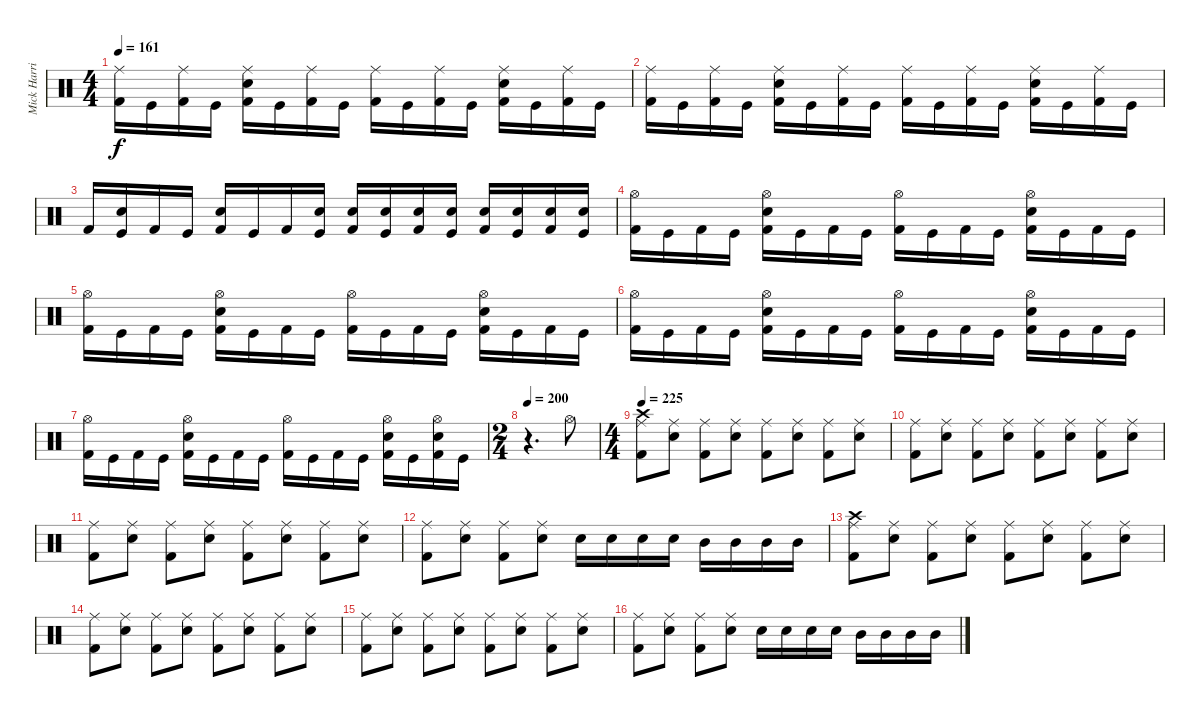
\track ("Mick Harris (Drums)" "Mick Harri") {instrument percussion}
\staff {score}
\articulation defaults
\ts (4 4)
\tempo 161
\clef neutral
\ks c
("Kick (hit) 2" "Ride (middle)").16{dy f} "Kick (hit)".16 ("Kick (hit) 2" "Ride (middle)").16 "Kick (hit)".16 ("Kick (hit) 2" "Ride (middle)" "Electric Snare (hit)").16 "Kick (hit)".16 ("Kick (hit) 2" "Ride (middle)").16 "Kick (hit)".16 ("Kick (hit) 2" "Ride (middle)").16 "Kick (hit)".16 ("Kick (hit) 2" "Ride (middle)").16 "Kick (hit)".16 ("Kick (hit) 2" "Ride (middle)" "Electric Snare (hit)").16 "Kick (hit)".16 ("Kick (hit) 2" "Ride (middle)").16 "Kick (hit)".16 |
("Kick (hit) 2" "Ride (middle)").16 "Kick (hit)".16 ("Kick (hit) 2" "Ride (middle)").16 "Kick (hit)".16 ("Kick (hit) 2" "Ride (middle)" "Electric Snare (hit)").16 "Kick (hit)".16 ("Kick (hit) 2" "Ride (middle)").16 "Kick (hit)".16 ("Kick (hit) 2" "Ride (middle)").16 "Kick (hit)".16 ("Kick (hit) 2" "Ride (middle)").16 "Kick (hit)".16 ("Kick (hit) 2" "Ride (middle)" "Electric Snare (hit)").16 "Kick (hit)".16 ("Kick (hit) 2" "Ride (middle)").16 "Kick (hit)".16 |
"Kick (hit) 2".16 ("Kick (hit)" "Electric Snare (hit)").16 "Kick (hit) 2".16 "Kick (hit)".16 ("Kick (hit) 2" "Electric Snare (hit)").16 "Kick (hit)".16 "Kick (hit) 2".16 ("Kick (hit)" "Electric Snare (hit)").16 ("Kick (hit) 2" "Electric Snare (hit)").16 ("Kick (hit)" "Electric Snare (hit)").16 ("Kick (hit) 2" "Electric Snare (hit)").16 ("Kick (hit)" "Electric Snare (hit)").16 ("Kick (hit) 2" "Electric Snare (hit)").16 ("Kick (hit)" "Electric Snare (hit)").16 ("Kick (hit) 2" "Electric Snare (hit)").16 ("Kick (hit)" "Electric Snare (hit)").16 |
("Kick (hit) 2" "Hi-Hat (open)").16 "Kick (hit)".16 "Kick (hit) 2".16 "Kick (hit)".16 ("Kick (hit) 2" "Hi-Hat (open)" "Electric Snare (hit)").16 "Kick (hit)".16 "Kick (hit) 2".16 "Kick (hit)".16 ("Kick (hit) 2" "Hi-Hat (open)").16 "Kick (hit)".16 "Kick (hit) 2".16 "Kick (hit)".16 ("Kick (hit) 2" "Hi-Hat (open)" "Electric Snare (hit)").16 "Kick (hit)".16 "Kick (hit) 2".16 "Kick (hit)".16 |
("Kick (hit) 2" "Hi-Hat (open)").16 "Kick (hit)".16 "Kick (hit) 2".16 "Kick (hit)".16 ("Kick (hit) 2" "Hi-Hat (open)" "Electric Snare (hit)").16 "Kick (hit)".16 "Kick (hit) 2".16 "Kick (hit)".16 ("Kick (hit) 2" "Hi-Hat (open)").16 "Kick (hit)".16 "Kick (hit) 2".16 "Kick (hit)".16 ("Kick (hit) 2" "Hi-Hat (open)" "Electric Snare (hit)").16 "Kick (hit)".16 "Kick (hit) 2".16 "Kick (hit)".16 |
("Kick (hit) 2" "Hi-Hat (open)").16 "Kick (hit)".16 "Kick (hit) 2".16 "Kick (hit)".16 ("Kick (hit) 2" "Hi-Hat (open)" "Electric Snare (hit)").16 "Kick (hit)".16 "Kick (hit) 2".16 "Kick (hit)".16 ("Kick (hit) 2" "Hi-Hat (open)").16 "Kick (hit)".16 "Kick (hit) 2".16 "Kick (hit)".16 ("Kick (hit) 2" "Hi-Hat (open)" "Electric Snare (hit)").16 "Kick (hit)".16 "Kick (hit) 2".16 "Kick (hit)".16 |
("Kick (hit) 2" "Hi-Hat (open)").16 "Kick (hit)".16 "Kick (hit) 2".16 "Kick (hit)".16 ("Kick (hit) 2" "Hi-Hat (open)" "Electric Snare (hit)").16 "Kick (hit)".16 "Kick (hit) 2".16 "Kick (hit)".16 ("Kick (hit) 2" "Hi-Hat (open)").16 "Kick (hit)".16 "Kick (hit) 2".16 "Kick (hit)".16 ("Kick (hit) 2" "Electric Snare (hit)" "Hi-Hat (open)").16 "Kick (hit)".16 ("Kick (hit) 2" "Electric Snare (hit)" "Hi-Hat (open)").16 "Kick (hit)".16 |
\ts (2 4)
\tempo 200
r.4{d} "Hi-Hat (open)".8 |
\ts (4 4)
\tempo 225
("Kick (hit) 2" "Crash high (hit)" "Ride (middle)").8 ("Electric Snare (hit)" "Ride (middle)").8 ("Kick (hit) 2" "Ride (middle)").8 ("Electric Snare (hit)" "Ride (middle)").8 ("Kick (hit) 2" "Ride (middle)").8 ("Electric Snare (hit)" "Ride (middle)").8 ("Kick (hit) 2" "Ride (middle)").8 ("Electric Snare (hit)" "Ride (middle)").8 |
("Kick (hit) 2" "Ride (middle)").8 ("Electric Snare (hit)" "Ride (middle)").8 ("Kick (hit) 2" "Ride (middle)").8 ("Electric Snare (hit)" "Ride (middle)").8 ("Kick (hit) 2" "Ride (middle)").8 ("Electric Snare (hit)" "Ride (middle)").8 ("Kick (hit) 2" "Ride (middle)").8 ("Electric Snare (hit)" "Ride (middle)").8 |
("Kick (hit) 2" "Ride (middle)").8 ("Electric Snare (hit)" "Ride (middle)").8 ("Kick (hit) 2" "Ride (middle)").8 ("Electric Snare (hit)" "Ride (middle)").8 ("Kick (hit) 2" "Ride (middle)").8 ("Electric Snare (hit)" "Ride (middle)").8 ("Kick (hit) 2" "Ride (middle)").8 ("Electric Snare (hit)" "Ride (middle)").8 |
("Kick (hit) 2" "Ride (middle)").8 ("Electric Snare (hit)" "Ride (middle)").8 ("Kick (hit) 2" "Ride (middle)").8 ("Electric Snare (hit)" "Ride (middle)").8 "Electric Snare (hit)".16 "Electric Snare (hit)".16 "Electric Snare (hit)".16 "Electric Snare (hit)".16 "Mid Tom (hit)".16 "Mid Tom (hit)".16 "Mid Tom (hit)".16 "Mid Tom (hit)".16 |
("Kick (hit) 2" "Crash high (hit)" "Ride (middle)").8 ("Electric Snare (hit)" "Ride (middle)").8 ("Kick (hit) 2" "Ride (middle)").8 ("Electric Snare (hit)" "Ride (middle)").8 ("Kick (hit) 2" "Ride (middle)").8 ("Electric Snare (hit)" "Ride (middle)").8 ("Kick (hit) 2" "Ride (middle)").8 ("Electric Snare (hit)" "Ride (middle)").8 |
("Kick (hit) 2" "Ride (middle)").8 ("Electric Snare (hit)" "Ride (middle)").8 ("Kick (hit) 2" "Ride (middle)").8 ("Electric Snare (hit)" "Ride (middle)").8 ("Kick (hit) 2" "Ride (middle)").8 ("Electric Snare (hit)" "Ride (middle)").8 ("Kick (hit) 2" "Ride (middle)").8 ("Electric Snare (hit)" "Ride (middle)").8 |
("Kick (hit) 2" "Ride (middle)").8 ("Electric Snare (hit)" "Ride (middle)").8 ("Kick (hit) 2" "Ride (middle)").8 ("Electric Snare (hit)" "Ride (middle)").8 ("Kick (hit) 2" "Ride (middle)").8 ("Electric Snare (hit)" "Ride (middle)").8 ("Kick (hit) 2" "Ride (middle)").8 ("Electric Snare (hit)" "Ride (middle)").8 |
("Kick (hit) 2" "Ride (middle)").8 ("Electric Snare (hit)" "Ride (middle)").8 ("Kick (hit) 2" "Ride (middle)").8 ("Electric Snare (hit)" "Ride (middle)").8 "Electric Snare (hit)".16 "Electric Snare (hit)".16 "Electric Snare (hit)".16 "Electric Snare (hit)".16 "Mid Tom (hit)".16 "Mid Tom (hit)".16 "Mid Tom (hit)".16 "Mid Tom (hit)".16
